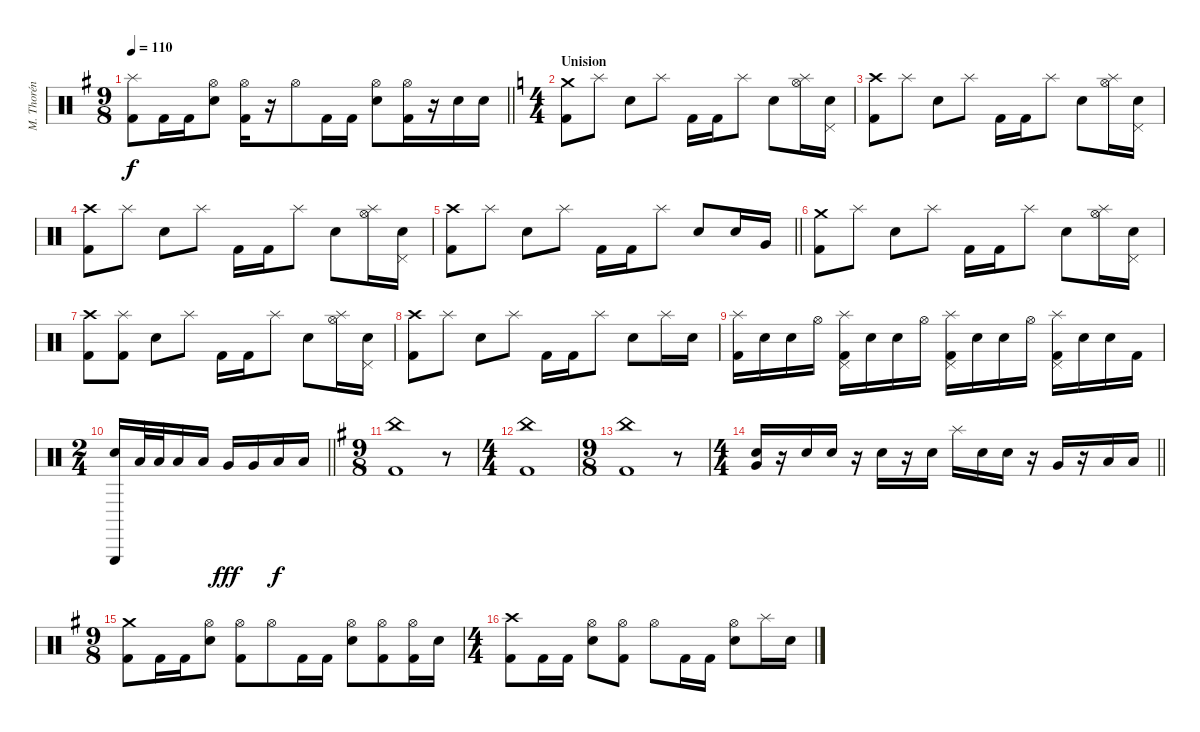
\track ("M. Thorén (Drums)" "M. Thorén ") {instrument percussion}
\staff {score}
\articulation defaults
\ts (9 8)
\tempo 110
\clef neutral
\barLineRight lightlight
\ks eminor
("Splash (hit)" "Kick (hit) 2").8{dy f} "Kick (hit) 2".16 "Kick (hit) 2".16 ("Hi-Hat (open)" "Electric Snare (hit)").8 ("Hi-Hat (open)" "Kick (hit) 2").16 r.16 "Hi-Hat (open)".8 "Kick (hit) 2".16 "Kick (hit) 2".16 ("Hi-Hat (open)" "Electric Snare (hit)").8 ("Hi-Hat (open)" "Kick (hit) 2").16 r.16 "Electric Snare (hit)".16 "Electric Snare (hit)".16 |
\ts (4 4)
\section ("" "Unision")
\ks aminor
("Crash medium (hit)" "Kick (hit) 2").8 "Splash (hit)".8 "Electric Snare (hit)".8 "Splash (hit)".8 "Kick (hit) 2".16 "Kick (hit) 2".16 "Splash (hit)".8 "Electric Snare (hit)".8 ("Splash (hit)" "Hi-Hat (open)").16 ("Pedal Hi-Hat (hit)" "Electric Snare (hit)").16 |
("Crash high (hit)" "Kick (hit) 2").8 "Splash (hit)".8 "Electric Snare (hit)".8 "Splash (hit)".8 "Kick (hit) 2".16 "Kick (hit) 2".16 "Splash (hit)".8 "Electric Snare (hit)".8 ("Splash (hit)" "Hi-Hat (open)").16 ("Pedal Hi-Hat (hit)" "Electric Snare (hit)").16 |
("Crash high (hit)" "Kick (hit) 2").8 "Splash (hit)".8 "Electric Snare (hit)".8 "Splash (hit)".8 "Kick (hit) 2".16 "Kick (hit) 2".16 "Splash (hit)".8 "Electric Snare (hit)".8 ("Splash (hit)" "Hi-Hat (open)").16 ("Pedal Hi-Hat (hit)" "Electric Snare (hit)").16 |
\barLineRight lightlight
("Crash high (hit)" "Kick (hit) 2").8 "Splash (hit)".8 "Electric Snare (hit)".8 "Splash (hit)".8 "Kick (hit) 2".16 "Kick (hit) 2".16 "Splash (hit)".8 "Electric Snare (hit)".8 "Electric Snare (hit)".16 "Very Low Tom (hit)".16 |
("Crash medium (hit)" "Kick (hit) 2").8 "Splash (hit)".8 "Electric Snare (hit)".8 "Splash (hit)".8 "Kick (hit) 2".16 "Kick (hit) 2".16 "Splash (hit)".8 "Electric Snare (hit)".8 ("Splash (hit)" "Hi-Hat (open)").16 ("Pedal Hi-Hat (hit)" "Electric Snare (hit)").16 |
("Crash high (hit)" "Kick (hit) 2").8 ("Splash (hit)" "Kick (hit) 2").8 "Electric Snare (hit)".8 "Splash (hit)".8 "Kick (hit) 2".16 "Kick (hit) 2".16 "Splash (hit)".8 "Electric Snare (hit)".8 ("Splash (hit)" "Hi-Hat (open)").16 ("Pedal Hi-Hat (hit)" "Electric Snare (hit)").16 |
("Crash high (hit)" "Kick (hit) 2").8 "Splash (hit)".8 "Electric Snare (hit)".8 "Splash (hit)".8 "Kick (hit) 2".16 "Kick (hit) 2".16 "Splash (hit)".8 "Electric Snare (hit)".8 "Splash (hit)".16 "Electric Snare (hit)".16 |
("Splash (hit)" "Kick (hit) 2").16 "Electric Snare (hit)".16 "Electric Snare (hit)".16 "Hi-Hat (open)".16 ("Splash (hit)" "Pedal Hi-Hat (hit)" "Kick (hit) 2").16 "Electric Snare (hit)".16 "Electric Snare (hit)".16 "Hi-Hat (open)".16 ("Splash (hit)" "Pedal Hi-Hat (hit)" "Kick (hit) 2").16 "Electric Snare (hit)".16 "Electric Snare (hit)".16 "Hi-Hat (open)".16 ("Splash (hit)" "Pedal Hi-Hat (hit)" "Kick (hit) 2").16 "Electric Snare (hit)".16 "Electric Snare (hit)".16 "Kick (hit) 2".16 |
\ts (2 4)
\barLineRight lightlight
("Triangle (hit)" "Electric Snare (hit)").16 "Low Tom (hit)".32 "Low Tom (hit)".32 "Low Tom (hit)".16 "Low Tom (hit)".16 "Very Low Tom (hit)".16{dy fff} "Very Low Tom (hit)".16 "Low Floor Tom (hit)".16{dy f} "Low Floor Tom (hit)".16 |
\ts (9 8)
\ks eminor
("China (hit)" "Kick (hit) 2").1 r.8 |
\ts (4 4)
("China (hit)" "Kick (hit) 2").1 |
\ts (9 8)
("China (hit)" "Kick (hit) 2").1 r.8 |
\ts (4 4)
\barLineRight lightlight
("Electric Snare (hit)" "Very Low Tom (hit)").16 r.16 "Electric Snare (hit)".16 "Electric Snare (hit)".16 r.16 "Electric Snare (hit)".16 r.16 "Electric Snare (hit)".16 "Splash (hit)".16 "Electric Snare (hit)".16 "Electric Snare (hit)".16 r.16 "Very Low Tom (hit)".16 r.16 "Low Floor Tom (hit)".16 "Low Floor Tom (hit)".16 |
\ts (9 8)
("Crash medium (hit)" "Kick (hit) 2").8 "Kick (hit) 2".16 "Kick (hit) 2".16 ("Hi-Hat (open)" "Electric Snare (hit)").8 ("Hi-Hat (open)" "Kick (hit) 2").8 "Hi-Hat (open)".8 "Kick (hit) 2".16 "Kick (hit) 2".16 ("Hi-Hat (open)" "Electric Snare (hit)").8 ("Hi-Hat (open)" "Kick (hit) 2").8 ("Hi-Hat (open)" "Kick (hit) 2").16 "Electric Snare (hit)".16 |
\ts (4 4)
("Crash high (hit)" "Kick (hit) 2").8 "Kick (hit) 2".16 "Kick (hit) 2".16 ("Hi-Hat (open)" "Electric Snare (hit)").8 ("Hi-Hat (open)" "Kick (hit) 2").8 "Hi-Hat (open)".8 "Kick (hit) 2".16 "Kick (hit) 2".16 ("Hi-Hat (open)" "Electric Snare (hit)").8 "Splash (hit)".16 "Electric Snare (hit)".16
